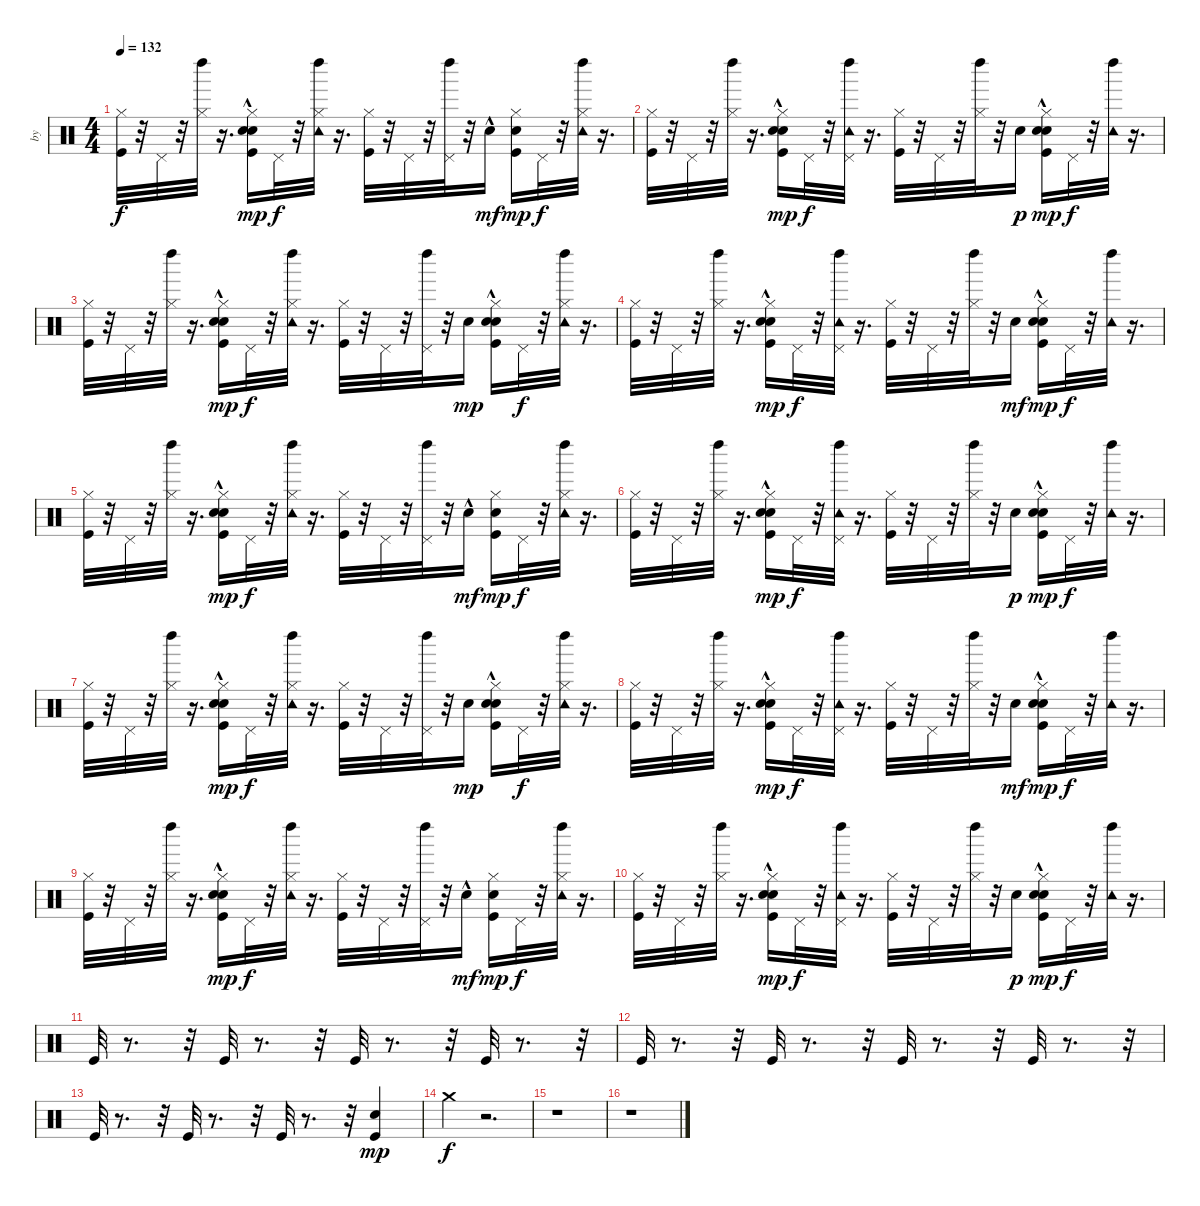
\track ("by" "by") {instrument percussion}
\staff {score}
\articulation defaults
\ts (4 4)
\tempo 132
\clef neutral
\ks c
("Hi-Hat (closed)" "Kick (hit)").32{dy f} r.32 "Pedal Hi-Hat (hit)".32 r.32 ("Left Maraca (hit)" "Hi-Hat (closed)").32 r.16{d} ("Hand Clap (hit)"{hac} "Hi-Hat (closed)" "Kick (hit)" "Electric Snare (hit)"{hac}).16{dy mp} "Pedal Hi-Hat (hit)".32{dy f} r.32 ("Hi-Hat (closed)" "Tambourine (hit)" "Left Maraca (hit)").32 r.16{d} ("Hi-Hat (closed)" "Kick (hit)").32 r.32 "Pedal Hi-Hat (hit)".32 r.32 ("Left Maraca (hit)" "Pedal Hi-Hat (hit)").32 r.32 "Hand Clap (hit)"{hac}.16{dy mf} ("Kick (hit)" "Hi-Hat (closed)" "Electric Snare (hit)").16{dy mp} "Pedal Hi-Hat (hit)".32{dy f} r.32 ("Hi-Hat (closed)" "Left Maraca (hit)" "Tambourine (hit)").32 r.16{d} |
("Hi-Hat (closed)" "Kick (hit)").32{volume 11} r.32 "Pedal Hi-Hat (hit)".32 r.32 ("Left Maraca (hit)" "Hi-Hat (closed)").32 r.16{d} ("Kick (hit)" "Hi-Hat (closed)" "Hand Clap (hit)" "Electric Snare (hit)"{hac}).16{dy mp} "Pedal Hi-Hat (hit)".32{dy f} r.32 ("Tambourine (hit)" "Left Maraca (hit)" "Pedal Hi-Hat (hit)").32 r.16{d} ("Hi-Hat (closed)" "Kick (hit)").32 r.32 "Pedal Hi-Hat (hit)".32 r.32 ("Hi-Hat (closed)" "Left Maraca (hit)").32 r.32 "Hand Clap (hit)".16{dy p} ("Kick (hit)" "Hi-Hat (closed)" "Hand Clap (hit)" "Electric Snare (hit)"{hac}).16{dy mp} "Pedal Hi-Hat (hit)".32{dy f} r.32 ("Tambourine (hit)" "Left Maraca (hit)").32 r.16{d} |
("Hi-Hat (closed)" "Kick (hit)").32 r.32 "Pedal Hi-Hat (hit)".32 r.32 ("Left Maraca (hit)" "Hi-Hat (closed)").32 r.16{d} ("Hi-Hat (closed)" "Kick (hit)" "Hand Clap (hit)" "Electric Snare (hit)"{hac}).16{dy mp} "Pedal Hi-Hat (hit)".32{dy f} r.32 ("Hi-Hat (closed)" "Tambourine (hit)" "Left Maraca (hit)").32 r.16{d} ("Hi-Hat (closed)" "Kick (hit)").32 r.32 "Pedal Hi-Hat (hit)".32 r.32 ("Left Maraca (hit)" "Pedal Hi-Hat (hit)").32 r.32 "Hand Clap (hit)".16{dy mp} ("Kick (hit)" "Hi-Hat (closed)" "Hand Clap (hit)" "Electric Snare (hit)"{hac}).16 "Pedal Hi-Hat (hit)".32{dy f} r.32 ("Hi-Hat (closed)" "Left Maraca (hit)" "Tambourine (hit)").32 r.16{d} |
("Hi-Hat (closed)" "Kick (hit)").32{volume 11} r.32 "Pedal Hi-Hat (hit)".32 r.32 ("Left Maraca (hit)" "Hi-Hat (closed)").32 r.16{d} ("Hand Clap (hit)" "Kick (hit)" "Hi-Hat (closed)" "Electric Snare (hit)"{hac}).16{dy mp} "Pedal Hi-Hat (hit)".32{dy f} r.32 ("Tambourine (hit)" "Left Maraca (hit)" "Pedal Hi-Hat (hit)").32 r.16{d} ("Hi-Hat (closed)" "Kick (hit)").32 r.32 "Pedal Hi-Hat (hit)".32 r.32 ("Hi-Hat (closed)" "Left Maraca (hit)").32 r.32 "Hand Clap (hit)".16{dy mf} ("Hand Clap (hit)" "Kick (hit)" "Hi-Hat (closed)" "Electric Snare (hit)"{hac}).16{dy mp} "Pedal Hi-Hat (hit)".32{dy f} r.32 ("Tambourine (hit)" "Left Maraca (hit)").32 r.16{d} |
("Hi-Hat (closed)" "Kick (hit)").32 r.32 "Pedal Hi-Hat (hit)".32 r.32 ("Left Maraca (hit)" "Hi-Hat (closed)").32 r.16{d} ("Hand Clap (hit)"{hac} "Hi-Hat (closed)" "Kick (hit)" "Electric Snare (hit)"{hac}).16{dy mp} "Pedal Hi-Hat (hit)".32{dy f} r.32 ("Hi-Hat (closed)" "Tambourine (hit)" "Left Maraca (hit)").32 r.16{d} ("Hi-Hat (closed)" "Kick (hit)").32 r.32 "Pedal Hi-Hat (hit)".32 r.32 ("Left Maraca (hit)" "Pedal Hi-Hat (hit)").32 r.32 "Hand Clap (hit)"{hac}.16{dy mf} ("Kick (hit)" "Hi-Hat (closed)" "Electric Snare (hit)").16{dy mp} "Pedal Hi-Hat (hit)".32{dy f} r.32 ("Hi-Hat (closed)" "Left Maraca (hit)" "Tambourine (hit)").32 r.16{d} |
("Hi-Hat (closed)" "Kick (hit)").32{volume 11} r.32 "Pedal Hi-Hat (hit)".32 r.32 ("Left Maraca (hit)" "Hi-Hat (closed)").32 r.16{d} ("Kick (hit)" "Hi-Hat (closed)" "Hand Clap (hit)" "Electric Snare (hit)"{hac}).16{dy mp} "Pedal Hi-Hat (hit)".32{dy f} r.32 ("Tambourine (hit)" "Left Maraca (hit)" "Pedal Hi-Hat (hit)").32 r.16{d} ("Hi-Hat (closed)" "Kick (hit)").32 r.32 "Pedal Hi-Hat (hit)".32 r.32 ("Hi-Hat (closed)" "Left Maraca (hit)").32 r.32 "Hand Clap (hit)".16{dy p} ("Kick (hit)" "Hi-Hat (closed)" "Hand Clap (hit)" "Electric Snare (hit)"{hac}).16{dy mp} "Pedal Hi-Hat (hit)".32{dy f} r.32 ("Tambourine (hit)" "Left Maraca (hit)").32 r.16{d} |
("Hi-Hat (closed)" "Kick (hit)").32 r.32 "Pedal Hi-Hat (hit)".32 r.32 ("Left Maraca (hit)" "Hi-Hat (closed)").32 r.16{d} ("Hi-Hat (closed)" "Kick (hit)" "Hand Clap (hit)" "Electric Snare (hit)"{hac}).16{dy mp} "Pedal Hi-Hat (hit)".32{dy f} r.32 ("Hi-Hat (closed)" "Tambourine (hit)" "Left Maraca (hit)").32 r.16{d} ("Hi-Hat (closed)" "Kick (hit)").32 r.32 "Pedal Hi-Hat (hit)".32 r.32 ("Left Maraca (hit)" "Pedal Hi-Hat (hit)").32 r.32 "Hand Clap (hit)".16{dy mp} ("Kick (hit)" "Hi-Hat (closed)" "Hand Clap (hit)" "Electric Snare (hit)"{hac}).16 "Pedal Hi-Hat (hit)".32{dy f} r.32 ("Hi-Hat (closed)" "Left Maraca (hit)" "Tambourine (hit)").32 r.16{d} |
("Hi-Hat (closed)" "Kick (hit)").32{volume 11} r.32 "Pedal Hi-Hat (hit)".32 r.32 ("Left Maraca (hit)" "Hi-Hat (closed)").32 r.16{d} ("Hand Clap (hit)" "Kick (hit)" "Hi-Hat (closed)" "Electric Snare (hit)"{hac}).16{dy mp} "Pedal Hi-Hat (hit)".32{dy f} r.32 ("Tambourine (hit)" "Left Maraca (hit)" "Pedal Hi-Hat (hit)").32 r.16{d} ("Hi-Hat (closed)" "Kick (hit)").32 r.32 "Pedal Hi-Hat (hit)".32 r.32 ("Hi-Hat (closed)" "Left Maraca (hit)").32 r.32 "Hand Clap (hit)".16{dy mf} ("Hand Clap (hit)" "Kick (hit)" "Hi-Hat (closed)" "Electric Snare (hit)"{hac}).16{dy mp} "Pedal Hi-Hat (hit)".32{dy f} r.32 ("Tambourine (hit)" "Left Maraca (hit)").32 r.16{d} |
("Hi-Hat (closed)" "Kick (hit)").32 r.32 "Pedal Hi-Hat (hit)".32 r.32 ("Left Maraca (hit)" "Hi-Hat (closed)").32 r.16{d} ("Hand Clap (hit)"{hac} "Hi-Hat (closed)" "Kick (hit)" "Electric Snare (hit)"{hac}).16{dy mp} "Pedal Hi-Hat (hit)".32{dy f} r.32 ("Hi-Hat (closed)" "Tambourine (hit)" "Left Maraca (hit)").32 r.16{d} ("Hi-Hat (closed)" "Kick (hit)").32 r.32 "Pedal Hi-Hat (hit)".32 r.32 ("Left Maraca (hit)" "Pedal Hi-Hat (hit)").32 r.32 "Hand Clap (hit)"{hac}.16{dy mf} ("Kick (hit)" "Hi-Hat (closed)" "Electric Snare (hit)").16{dy mp} "Pedal Hi-Hat (hit)".32{dy f} r.32 ("Hi-Hat (closed)" "Left Maraca (hit)" "Tambourine (hit)").32 r.16{d} |
("Hi-Hat (closed)" "Kick (hit)").32{volume 11} r.32 "Pedal Hi-Hat (hit)".32 r.32 ("Left Maraca (hit)" "Hi-Hat (closed)").32 r.16{d} ("Kick (hit)" "Hi-Hat (closed)" "Hand Clap (hit)" "Electric Snare (hit)"{hac}).16{dy mp} "Pedal Hi-Hat (hit)".32{dy f} r.32 ("Tambourine (hit)" "Left Maraca (hit)" "Pedal Hi-Hat (hit)").32 r.16{d} ("Hi-Hat (closed)" "Kick (hit)").32 r.32 "Pedal Hi-Hat (hit)".32 r.32 ("Hi-Hat (closed)" "Left Maraca (hit)").32 r.32 "Hand Clap (hit)".16{dy p} ("Kick (hit)" "Hi-Hat (closed)" "Hand Clap (hit)" "Electric Snare (hit)"{hac}).16{dy mp} "Pedal Hi-Hat (hit)".32{dy f} r.32 ("Tambourine (hit)" "Left Maraca (hit)").32 r.16{d} |
"Kick (hit)".32 r.8{d} r.32 "Kick (hit)".32 r.8{d} r.32 "Kick (hit)".32 r.8{d} r.32 "Kick (hit)".32 r.8{d} r.32 |
"Kick (hit)".32{volume 11} r.8{d} r.32 "Kick (hit)".32 r.8{d} r.32 "Kick (hit)".32 r.8{d} r.32 "Kick (hit)".32 r.8{d} r.32 |
"Kick (hit)".32 r.8{d} r.32 "Kick (hit)".32 r.8{d} r.32 "Kick (hit)".32 r.8{d} r.32 ("Kick (hit)" "Electric Snare (hit)").4{dy mp} |
"Crash medium (hit)".4{dy f} r.2{d} |
r.1 |
r.1
